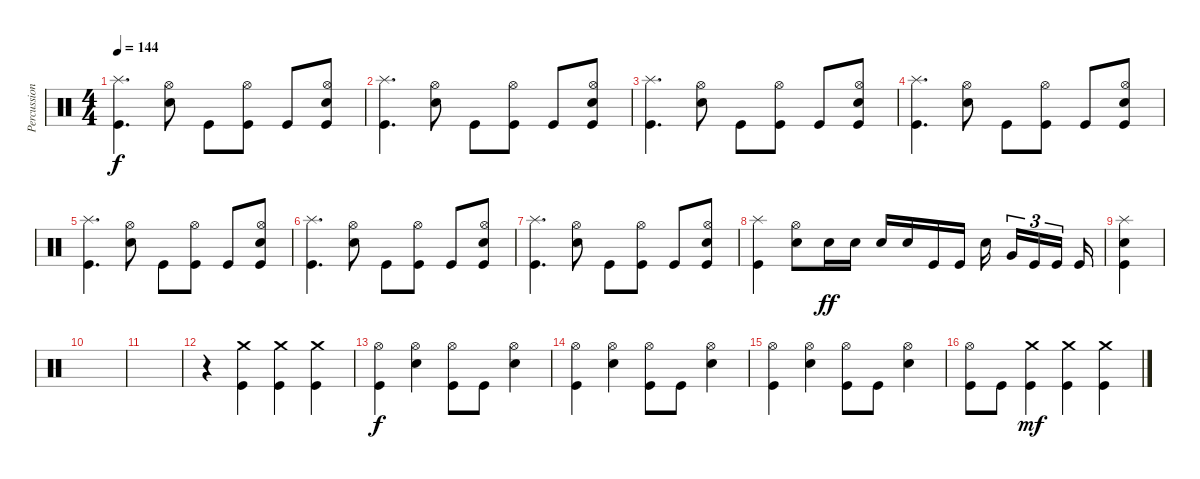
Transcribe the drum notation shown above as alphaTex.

\track ("Percussion" "Percussion") {instrument percussion}
\staff {score}
\articulation defaults
\ts (4 4)
\tempo 144
\clef neutral
\ks c
("Splash (hit)" "Kick (hit)").4{d dy f} ("Hi-Hat (open)" "Snare (hit) 2").8 "Kick (hit)".8 ("Hi-Hat (open)" "Kick (hit)").8 "Kick (hit)".8 ("Hi-Hat (open)" "Snare (hit) 2" "Kick (hit)").8 |
("Splash (hit)" "Kick (hit)").4{d} ("Hi-Hat (open)" "Snare (hit) 2").8 "Kick (hit)".8 ("Hi-Hat (open)" "Kick (hit)").8 "Kick (hit)".8 ("Hi-Hat (open)" "Snare (hit) 2" "Kick (hit)").8 |
("Splash (hit)" "Kick (hit)").4{d} ("Hi-Hat (open)" "Snare (hit) 2").8 "Kick (hit)".8 ("Hi-Hat (open)" "Kick (hit)").8 "Kick (hit)".8 ("Hi-Hat (open)" "Snare (hit) 2" "Kick (hit)").8 |
("Splash (hit)" "Kick (hit)").4{d} ("Hi-Hat (open)" "Snare (hit) 2").8 "Kick (hit)".8 ("Hi-Hat (open)" "Kick (hit)").8 "Kick (hit)".8 ("Hi-Hat (open)" "Snare (hit) 2" "Kick (hit)").8 |
("Splash (hit)" "Kick (hit)").4{d} ("Hi-Hat (open)" "Snare (hit) 2").8 "Kick (hit)".8 ("Hi-Hat (open)" "Kick (hit)").8 "Kick (hit)".8 ("Hi-Hat (open)" "Snare (hit) 2" "Kick (hit)").8 |
("Splash (hit)" "Kick (hit)").4{d} ("Hi-Hat (open)" "Snare (hit) 2").8 "Kick (hit)".8 ("Hi-Hat (open)" "Kick (hit)").8 "Kick (hit)".8 ("Hi-Hat (open)" "Snare (hit) 2" "Kick (hit)").8 |
("Splash (hit)" "Kick (hit)").4{d} ("Hi-Hat (open)" "Snare (hit) 2").8 "Kick (hit)".8 ("Hi-Hat (open)" "Kick (hit)").8 "Kick (hit)".8 ("Hi-Hat (open)" "Snare (hit) 2" "Kick (hit)").8 |
("Splash (hit)" "Kick (hit)").4 ("Hi-Hat (open)" "Snare (hit) 2").8 "Snare (hit) 2".16{dy ff} "Snare (hit) 2".16 "Snare (hit) 2".16 "Snare (hit) 2".16 "Kick (hit)".16 "Kick (hit)".16 "Snare (hit) 2".16{beam splitsecondary} "Very Low Tom (hit)".16{tu (3 2)} "Kick (hit)".16{tu (3 2)} "Kick (hit)".16{tu (3 2) beam splitsecondary} "Kick (hit)".16 |
("Splash (hit)" "Snare (hit) 2" "Kick (hit)").4 |
|
|
r.4 ("Crash medium (hit)" "Kick (hit)").4 ("Crash medium (hit)" "Kick (hit)").4 ("Crash medium (hit)" "Kick (hit)").4 |
("Hi-Hat (open)" "Kick (hit)").4{dy f} ("Hi-Hat (open)" "Snare (hit) 2").4 ("Hi-Hat (open)" "Kick (hit)").8 "Kick (hit)".8 ("Hi-Hat (open)" "Snare (hit) 2").4 |
("Hi-Hat (open)" "Kick (hit)").4 ("Hi-Hat (open)" "Snare (hit) 2").4 ("Hi-Hat (open)" "Kick (hit)").8 "Kick (hit)".8 ("Hi-Hat (open)" "Snare (hit) 2").4 |
("Hi-Hat (open)" "Kick (hit)").4 ("Hi-Hat (open)" "Snare (hit) 2").4 ("Hi-Hat (open)" "Kick (hit)").8 "Kick (hit)".8 ("Hi-Hat (open)" "Snare (hit) 2").4 |
("Hi-Hat (open)" "Kick (hit)").8 "Kick (hit)".8 ("Crash medium (hit)" "Kick (hit)").4{dy mf} ("Crash medium (hit)" "Kick (hit)").4 ("Crash medium (hit)" "Kick (hit)").4
